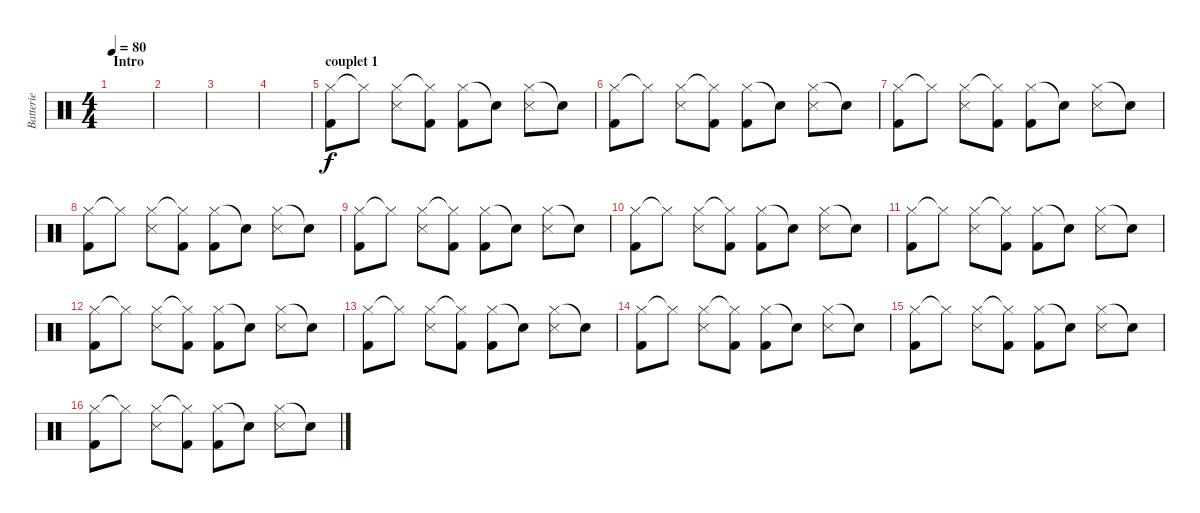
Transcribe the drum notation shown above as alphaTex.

\track ("Batterie" "Batterie") {instrument percussion}
\staff {score}
\articulation defaults
\ts (4 4)
\section ("" "Intro")
\tempo 80
\clef neutral
\ks c
|
|
|
|
\section ("" "couplet 1")
("Hi-Hat (closed)" "Kick (hit) 2").8 "Hi-Hat (closed)"{t}.8 ("Hi-Hat (closed)" "Snare (side stick) 3").8 ("Hi-Hat (closed)"{t} "Kick (hit) 2").8 ("Hi-Hat (closed)" "Kick (hit) 2").8 "Snare (hit)"{t}.8 ("Hi-Hat (closed)" "Snare (side stick) 3").8 "Snare (hit)"{t}.8 |
("Hi-Hat (closed)" "Kick (hit) 2").8 "Hi-Hat (closed)"{t}.8 ("Hi-Hat (closed)" "Snare (side stick) 3").8 ("Hi-Hat (closed)"{t} "Kick (hit) 2").8 ("Hi-Hat (closed)" "Kick (hit) 2").8 "Snare (hit)"{t}.8 ("Hi-Hat (closed)" "Snare (side stick) 3").8 "Snare (hit)"{t}.8 |
("Hi-Hat (closed)" "Kick (hit) 2").8 "Hi-Hat (closed)"{t}.8 ("Hi-Hat (closed)" "Snare (side stick) 3").8 ("Hi-Hat (closed)"{t} "Kick (hit) 2").8 ("Hi-Hat (closed)" "Kick (hit) 2").8 "Snare (hit)"{t}.8 ("Hi-Hat (closed)" "Snare (side stick) 3").8 "Snare (hit)"{t}.8 |
("Hi-Hat (closed)" "Kick (hit) 2").8 "Hi-Hat (closed)"{t}.8 ("Hi-Hat (closed)" "Snare (side stick) 3").8 ("Hi-Hat (closed)"{t} "Kick (hit) 2").8 ("Hi-Hat (closed)" "Kick (hit) 2").8 "Snare (hit)"{t}.8 ("Hi-Hat (closed)" "Snare (side stick) 3").8 "Snare (hit)"{t}.8 |
("Hi-Hat (closed)" "Kick (hit) 2").8 "Hi-Hat (closed)"{t}.8 ("Hi-Hat (closed)" "Snare (side stick) 3").8 ("Hi-Hat (closed)"{t} "Kick (hit) 2").8 ("Hi-Hat (closed)" "Kick (hit) 2").8 "Snare (hit)"{t}.8 ("Hi-Hat (closed)" "Snare (side stick) 3").8 "Snare (hit)"{t}.8 |
("Hi-Hat (closed)" "Kick (hit) 2").8 "Hi-Hat (closed)"{t}.8 ("Hi-Hat (closed)" "Snare (side stick) 3").8 ("Hi-Hat (closed)"{t} "Kick (hit) 2").8 ("Hi-Hat (closed)" "Kick (hit) 2").8 "Snare (hit)"{t}.8 ("Hi-Hat (closed)" "Snare (side stick) 3").8 "Snare (hit)"{t}.8 |
("Hi-Hat (closed)" "Kick (hit) 2").8 "Hi-Hat (closed)"{t}.8 ("Hi-Hat (closed)" "Snare (side stick) 3").8 ("Hi-Hat (closed)"{t} "Kick (hit) 2").8 ("Hi-Hat (closed)" "Kick (hit) 2").8 "Snare (hit)"{t}.8 ("Hi-Hat (closed)" "Snare (side stick) 3").8 "Snare (hit)"{t}.8 |
("Hi-Hat (closed)" "Kick (hit) 2").8 "Hi-Hat (closed)"{t}.8 ("Hi-Hat (closed)" "Snare (side stick) 3").8 ("Hi-Hat (closed)"{t} "Kick (hit) 2").8 ("Hi-Hat (closed)" "Kick (hit) 2").8 "Snare (hit)"{t}.8 ("Hi-Hat (closed)" "Snare (side stick) 3").8 "Snare (hit)"{t}.8 |
("Hi-Hat (closed)" "Kick (hit) 2").8 "Hi-Hat (closed)"{t}.8 ("Hi-Hat (closed)" "Snare (side stick) 3").8 ("Hi-Hat (closed)"{t} "Kick (hit) 2").8 ("Hi-Hat (closed)" "Kick (hit) 2").8 "Snare (hit)"{t}.8 ("Hi-Hat (closed)" "Snare (side stick) 3").8 "Snare (hit)"{t}.8 |
("Hi-Hat (closed)" "Kick (hit) 2").8 "Hi-Hat (closed)"{t}.8 ("Hi-Hat (closed)" "Snare (side stick) 3").8 ("Hi-Hat (closed)"{t} "Kick (hit) 2").8 ("Hi-Hat (closed)" "Kick (hit) 2").8 "Snare (hit)"{t}.8 ("Hi-Hat (closed)" "Snare (side stick) 3").8 "Snare (hit)"{t}.8 |
("Hi-Hat (closed)" "Kick (hit) 2").8 "Hi-Hat (closed)"{t}.8 ("Hi-Hat (closed)" "Snare (side stick) 3").8 ("Hi-Hat (closed)"{t} "Kick (hit) 2").8 ("Hi-Hat (closed)" "Kick (hit) 2").8 "Snare (hit)"{t}.8 ("Hi-Hat (closed)" "Snare (side stick) 3").8 "Snare (hit)"{t}.8 |
("Hi-Hat (closed)" "Kick (hit) 2").8 "Hi-Hat (closed)"{t}.8 ("Hi-Hat (closed)" "Snare (side stick) 3").8 ("Hi-Hat (closed)"{t} "Kick (hit) 2").8 ("Hi-Hat (closed)" "Kick (hit) 2").8 "Snare (hit)"{t}.8 ("Hi-Hat (closed)" "Snare (side stick) 3").8 "Snare (hit)"{t}.8
